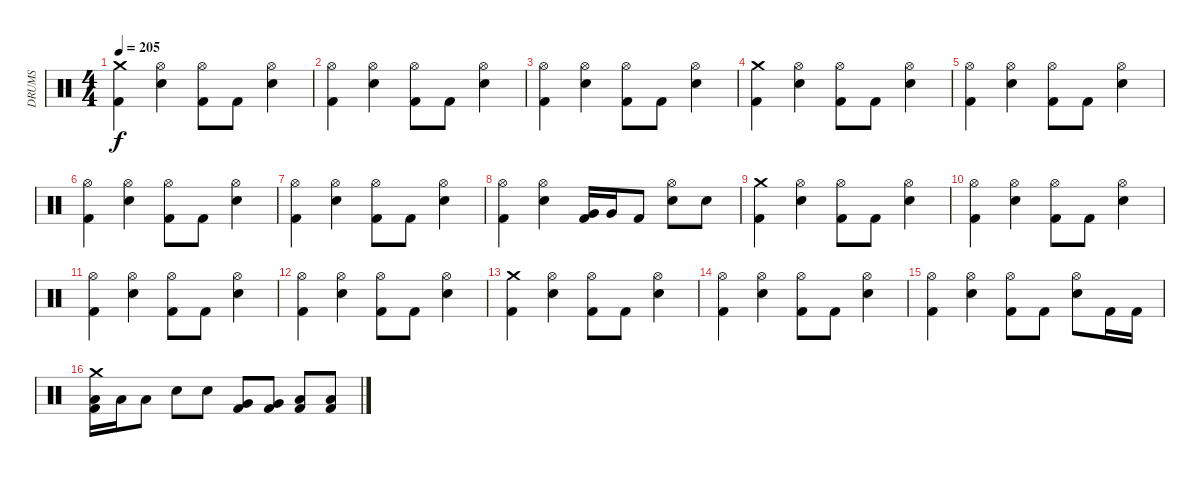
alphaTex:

\track ("DRUMS" "DRUMS") {instrument percussion}
\staff {score}
\articulation defaults
\ts (4 4)
\tempo 205
\clef neutral
\ks c
("Crash medium (hit)" "Kick (hit) 2").4{dy f} ("Hi-Hat (open)" "Snare (hit) 2").4 ("Hi-Hat (open)" "Kick (hit) 2").8 "Kick (hit) 2".8 ("Hi-Hat (open)" "Snare (hit) 2").4 |
("Hi-Hat (open)" "Kick (hit) 2").4 ("Hi-Hat (open)" "Snare (hit) 2").4 ("Hi-Hat (open)" "Kick (hit) 2").8 "Kick (hit) 2".8 ("Hi-Hat (open)" "Snare (hit) 2").4 |
("Hi-Hat (open)" "Kick (hit) 2").4 ("Hi-Hat (open)" "Snare (hit) 2").4 ("Hi-Hat (open)" "Kick (hit) 2").8 "Kick (hit) 2".8 ("Hi-Hat (open)" "Snare (hit) 2").4 |
("Crash medium (hit)" "Kick (hit) 2").4 ("Hi-Hat (open)" "Snare (hit) 2").4 ("Hi-Hat (open)" "Kick (hit) 2").8 "Kick (hit) 2".8 ("Hi-Hat (open)" "Snare (hit) 2").4 |
("Hi-Hat (open)" "Kick (hit) 2").4 ("Hi-Hat (open)" "Snare (hit) 2").4 ("Hi-Hat (open)" "Kick (hit) 2").8 "Kick (hit) 2".8 ("Hi-Hat (open)" "Snare (hit) 2").4 |
("Hi-Hat (open)" "Kick (hit) 2").4 ("Hi-Hat (open)" "Snare (hit) 2").4 ("Hi-Hat (open)" "Kick (hit) 2").8 "Kick (hit) 2".8 ("Hi-Hat (open)" "Snare (hit) 2").4 |
("Hi-Hat (open)" "Kick (hit) 2").4 ("Hi-Hat (open)" "Snare (hit) 2").4 ("Hi-Hat (open)" "Kick (hit) 2").8 "Kick (hit) 2".8 ("Hi-Hat (open)" "Snare (hit) 2").4 |
("Hi-Hat (open)" "Kick (hit) 2").4 ("Hi-Hat (open)" "Snare (hit) 2").4 ("Very Low Tom (hit)" "Kick (hit) 2").16 "Very Low Tom (hit)".16 "Kick (hit) 2".8 ("Hi-Hat (open)" "Snare (hit) 2").8 "Snare (hit) 2".8 |
("Crash medium (hit)" "Kick (hit) 2").4 ("Hi-Hat (open)" "Snare (hit) 2").4 ("Hi-Hat (open)" "Kick (hit) 2").8 "Kick (hit) 2".8 ("Hi-Hat (open)" "Snare (hit) 2").4 |
("Hi-Hat (open)" "Kick (hit) 2").4 ("Hi-Hat (open)" "Snare (hit) 2").4 ("Hi-Hat (open)" "Kick (hit) 2").8 "Kick (hit) 2".8 ("Hi-Hat (open)" "Snare (hit) 2").4 |
("Hi-Hat (open)" "Kick (hit) 2").4 ("Hi-Hat (open)" "Snare (hit) 2").4 ("Hi-Hat (open)" "Kick (hit) 2").8 "Kick (hit) 2".8 ("Hi-Hat (open)" "Snare (hit) 2").4 |
("Hi-Hat (open)" "Kick (hit) 2").4 ("Hi-Hat (open)" "Snare (hit) 2").4 ("Hi-Hat (open)" "Kick (hit) 2").8 "Kick (hit) 2".8 ("Hi-Hat (open)" "Snare (hit) 2").4 |
("Crash medium (hit)" "Kick (hit) 2").4 ("Hi-Hat (open)" "Snare (hit) 2").4 ("Hi-Hat (open)" "Kick (hit) 2").8 "Kick (hit) 2".8 ("Hi-Hat (open)" "Snare (hit) 2").4 |
("Hi-Hat (open)" "Kick (hit) 2").4 ("Hi-Hat (open)" "Snare (hit) 2").4 ("Hi-Hat (open)" "Kick (hit) 2").8 "Kick (hit) 2".8 ("Hi-Hat (open)" "Snare (hit) 2").4 |
("Hi-Hat (open)" "Kick (hit) 2").4 ("Hi-Hat (open)" "Snare (hit) 2").4 ("Hi-Hat (open)" "Kick (hit) 2").8 "Kick (hit) 2".8 ("Hi-Hat (open)" "Snare (hit) 2").8 "Kick (hit) 2".16 "Kick (hit) 2".16 |
("Crash medium (hit)" "Low Tom (hit)" "Kick (hit) 2").16 "Low Tom (hit)".16 "Low Tom (hit)".8 "Snare (hit) 2".8 "Snare (hit) 2".8 ("Very Low Tom (hit)" "Kick (hit) 2").8 ("Very Low Tom (hit)" "Kick (hit) 2").8 ("Low Tom (hit)" "Kick (hit) 2").8 ("Low Tom (hit)" "Kick (hit) 2").8
